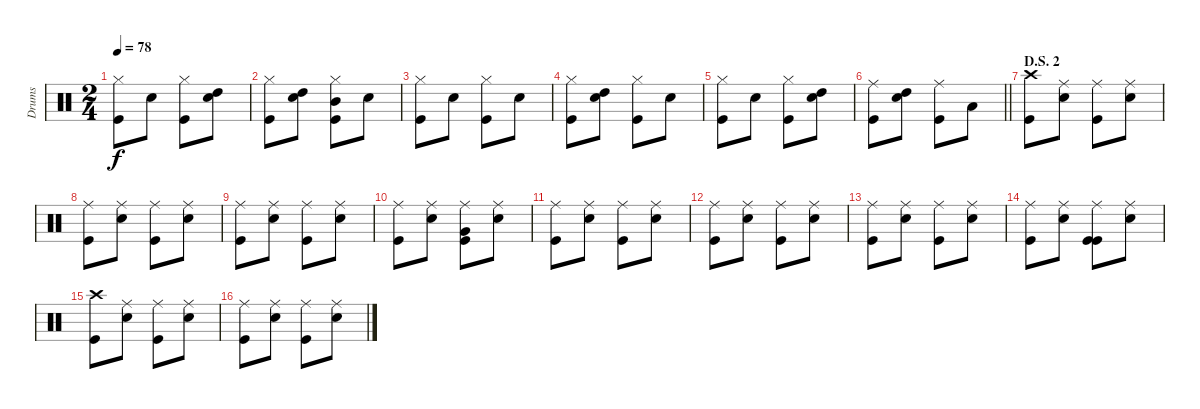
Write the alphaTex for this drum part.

\track ("Drums" "Drums") {instrument percussion}
\staff {score}
\articulation defaults
\ts (2 4)
\tempo 78
\clef neutral
\ks c
("Hi-Hat (closed)" "Kick (hit)").8{dy f} "Electric Snare (hit)".8 ("Hi-Hat (closed)" "Kick (hit)").8 ("High Tom (hit)" "Electric Snare (hit)").8 |
("Hi-Hat (closed)" "Kick (hit)").8 ("High Tom (hit)" "Electric Snare (hit)").8 ("Hi-Hat (closed)" "Mid Tom (hit)" "Kick (hit)").8 "Electric Snare (hit)".8 |
("Hi-Hat (closed)" "Kick (hit)").8 "Electric Snare (hit)".8 ("Hi-Hat (closed)" "Kick (hit)").8 "Electric Snare (hit)".8 |
("Hi-Hat (closed)" "Kick (hit)").8 ("High Tom (hit)" "Electric Snare (hit)").8 ("Hi-Hat (closed)" "Kick (hit)").8 "Electric Snare (hit)".8 |
("Hi-Hat (closed)" "Kick (hit)").8 "Electric Snare (hit)".8 ("Hi-Hat (closed)" "Kick (hit)").8 ("High Tom (hit)" "Electric Snare (hit)").8 |
\barLineRight lightlight
("Ride (middle)" "Kick (hit)").8 ("High Tom (hit)" "Electric Snare (hit)").8 ("Ride (middle)" "Kick (hit)").8 "Low Tom (hit)".8 |
\section ("" "D.S. 2")
("Crash high (hit)" "Kick (hit)").8 ("Ride (middle)" "Electric Snare (hit)").8 ("Ride (middle)" "Kick (hit)").8 ("Ride (middle)" "Electric Snare (hit)").8 |
("Ride (middle)" "Kick (hit)").8 ("Ride (middle)" "Electric Snare (hit)").8 ("Ride (middle)" "Kick (hit)").8 ("Ride (middle)" "Electric Snare (hit)").8 |
("Ride (middle)" "Kick (hit)").8 ("Ride (middle)" "Electric Snare (hit)").8 ("Ride (middle)" "Kick (hit)").8 ("Ride (middle)" "Electric Snare (hit)").8 |
("Ride (middle)" "Kick (hit)").8 ("Ride (middle)" "Electric Snare (hit)").8 ("Ride (middle)" "Very Low Tom (hit)" "Kick (hit)").8 ("Ride (middle)" "Electric Snare (hit)").8 |
("Ride (middle)" "Kick (hit)").8 ("Ride (middle)" "Electric Snare (hit)").8 ("Ride (middle)" "Kick (hit)").8 ("Ride (middle)" "Electric Snare (hit)").8 |
("Ride (middle)" "Kick (hit)").8 ("Ride (middle)" "Electric Snare (hit)").8 ("Ride (middle)" "Kick (hit)").8 ("Ride (middle)" "Electric Snare (hit)").8 |
("Ride (middle)" "Kick (hit)").8 ("Ride (middle)" "Electric Snare (hit)").8 ("Ride (middle)" "Kick (hit)").8 ("Ride (middle)" "Electric Snare (hit)").8 |
("Ride (middle)" "Kick (hit)").8 ("Ride (middle)" "Electric Snare (hit)").8 ("Ride (middle)" "Kick (hit)" "Kick (hit)").8 ("Ride (middle)" "Electric Snare (hit)").8 |
("Crash high (hit)" "Kick (hit)").8 ("Ride (middle)" "Electric Snare (hit)").8 ("Ride (middle)" "Kick (hit)").8 ("Ride (middle)" "Electric Snare (hit)").8 |
("Ride (middle)" "Kick (hit)").8 ("Ride (middle)" "Electric Snare (hit)").8 ("Ride (middle)" "Kick (hit)").8 ("Ride (middle)" "Electric Snare (hit)").8
